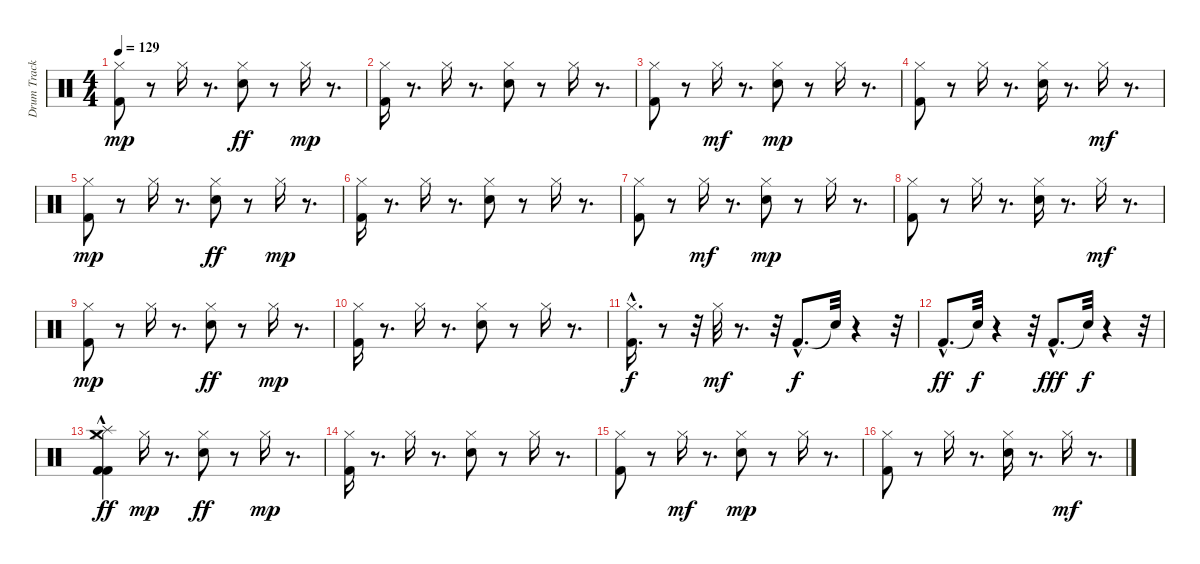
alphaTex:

\track ("Drum Track 1" "Drum Track") {instrument percussion}
\staff {score}
\articulation defaults
\ts (4 4)
\tempo 129
\clef neutral
\ks c
("Kick (hit) 2" "Hi-Hat (closed)").8{dy mp} r.8 "Hi-Hat (closed)".16 r.8{d} ("Hi-Hat (closed)" "Snare (hit) 2").8{dy ff} r.8 "Hi-Hat (closed)".16{dy mp} r.8{d} |
("Kick (hit) 2" "Hi-Hat (closed)").16 r.8{d} "Hi-Hat (closed)".16 r.8{d} ("Snare (hit) 2" "Hi-Hat (closed)").8 r.8 "Hi-Hat (closed)".16 r.8{d} |
("Kick (hit) 2" "Hi-Hat (closed)").8 r.8 "Hi-Hat (closed)".16{dy mf} r.8{d} ("Hi-Hat (closed)" "Snare (hit) 2").8{dy mp} r.8 "Hi-Hat (closed)".16 r.8{d} |
("Hi-Hat (closed)" "Kick (hit) 2").8 r.8 "Hi-Hat (closed)".16 r.8{d} ("Hi-Hat (closed)" "Snare (hit) 2").16 r.8{d} "Hi-Hat (closed)".16{dy mf} r.8{d} |
("Kick (hit) 2" "Hi-Hat (closed)").8{dy mp} r.8 "Hi-Hat (closed)".16 r.8{d} ("Hi-Hat (closed)" "Snare (hit) 2").8{dy ff} r.8 "Hi-Hat (closed)".16{dy mp} r.8{d} |
("Kick (hit) 2" "Hi-Hat (closed)").16 r.8{d} "Hi-Hat (closed)".16 r.8{d} ("Snare (hit) 2" "Hi-Hat (closed)").8 r.8 "Hi-Hat (closed)".16 r.8{d} |
("Kick (hit) 2" "Hi-Hat (closed)").8 r.8 "Hi-Hat (closed)".16{dy mf} r.8{d} ("Hi-Hat (closed)" "Snare (hit) 2").8{dy mp} r.8 "Hi-Hat (closed)".16 r.8{d} |
("Hi-Hat (closed)" "Kick (hit) 2").8 r.8 "Hi-Hat (closed)".16 r.8{d} ("Hi-Hat (closed)" "Snare (hit) 2").16 r.8{d} "Hi-Hat (closed)".16{dy mf} r.8{d} |
("Kick (hit) 2" "Hi-Hat (closed)").8{dy mp} r.8 "Hi-Hat (closed)".16 r.8{d} ("Hi-Hat (closed)" "Snare (hit) 2").8{dy ff} r.8 "Hi-Hat (closed)".16{dy mp} r.8{d} |
("Kick (hit) 2" "Hi-Hat (closed)").16 r.8{d} "Hi-Hat (closed)".16 r.8{d} ("Snare (hit) 2" "Hi-Hat (closed)").8 r.8 "Hi-Hat (closed)".16 r.8{d} |
("Hi-Hat (closed)"{hac} "Kick (hit) 2").16{d dy f} r.8 r.32 "Hi-Hat (closed)".32{dy mf} r.8{d} r.32 "Kick (hit) 2"{hac}.8{d dy f} "Snare (hit)"{t}.32 r.4 r.32 |
"Kick (hit) 2"{hac}.8{d dy ff} "Snare (hit)"{t}.32{dy f} r.4 r.32 "Kick (hit) 2"{hac}.8{d dy fff} "Snare (hit)"{t}.32{dy f} r.4 r.32 |
("Kick (hit) 2" "Hi-Hat (closed)" "Crash medium (hit)"{hac} "Splash (hit)"{hac} "Kick (hit) 2"{hac}).4{dy ff} "Hi-Hat (closed)".16{dy mp} r.8{d} ("Hi-Hat (closed)" "Snare (hit) 2").8{dy ff} r.8 "Hi-Hat (closed)".16{dy mp} r.8{d} |
("Kick (hit) 2" "Hi-Hat (closed)").16 r.8{d} "Hi-Hat (closed)".16 r.8{d} ("Snare (hit) 2" "Hi-Hat (closed)").8 r.8 "Hi-Hat (closed)".16 r.8{d} |
("Kick (hit) 2" "Hi-Hat (closed)").8 r.8 "Hi-Hat (closed)".16{dy mf} r.8{d} ("Hi-Hat (closed)" "Snare (hit) 2").8{dy mp} r.8 "Hi-Hat (closed)".16 r.8{d} |
("Hi-Hat (closed)" "Kick (hit) 2").8 r.8 "Hi-Hat (closed)".16 r.8{d} ("Hi-Hat (closed)" "Snare (hit) 2").16 r.8{d} "Hi-Hat (closed)".16{dy mf} r.8{d}
